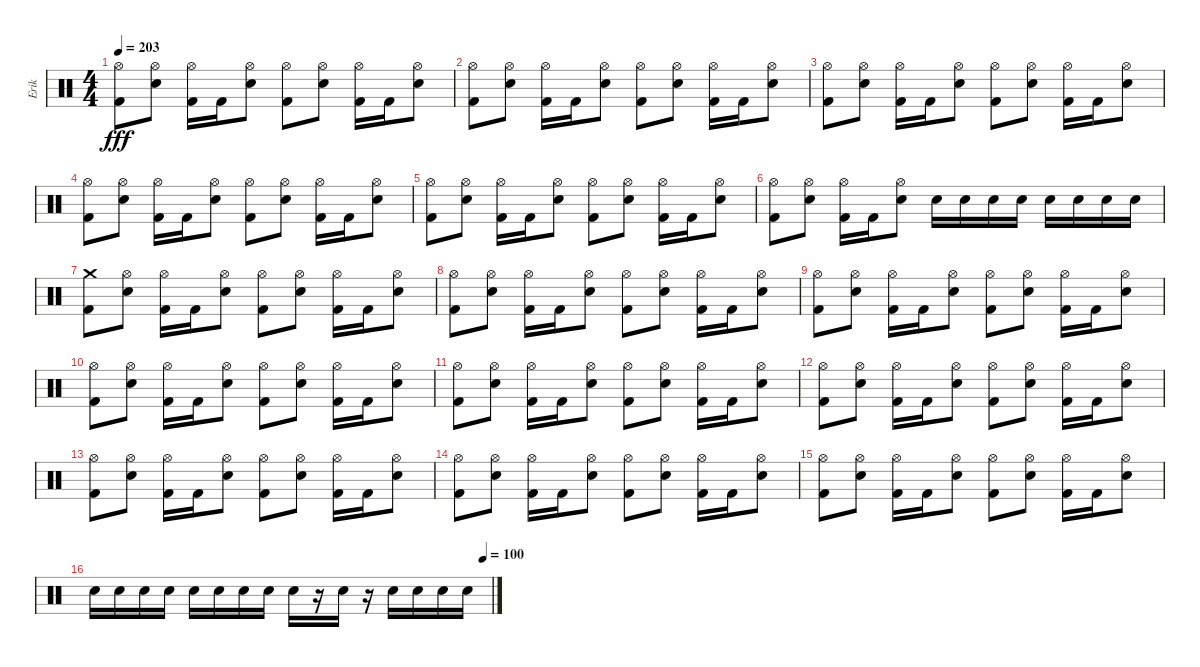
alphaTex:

\track ("Erik" "Erik") {instrument percussion}
\staff {score}
\articulation defaults
\ts (4 4)
\tempo 203
\clef neutral
\ks c
("Kick (hit) 2" "Hi-Hat (open)").8{dy fff} ("Electric Snare (hit)" "Hi-Hat (open)").8 ("Kick (hit) 2" "Hi-Hat (open)").16 "Kick (hit) 2".16 ("Electric Snare (hit)" "Hi-Hat (open)").8 ("Kick (hit) 2" "Hi-Hat (open)").8 ("Electric Snare (hit)" "Hi-Hat (open)").8 ("Kick (hit) 2" "Hi-Hat (open)").16 "Kick (hit) 2".16 ("Electric Snare (hit)" "Hi-Hat (open)").8 |
("Kick (hit) 2" "Hi-Hat (open)").8 ("Electric Snare (hit)" "Hi-Hat (open)").8 ("Kick (hit) 2" "Hi-Hat (open)").16 "Kick (hit) 2".16 ("Electric Snare (hit)" "Hi-Hat (open)").8 ("Kick (hit) 2" "Hi-Hat (open)").8 ("Electric Snare (hit)" "Hi-Hat (open)").8 ("Kick (hit) 2" "Hi-Hat (open)").16 "Kick (hit) 2".16 ("Electric Snare (hit)" "Hi-Hat (open)").8 |
("Kick (hit) 2" "Hi-Hat (open)").8 ("Electric Snare (hit)" "Hi-Hat (open)").8 ("Kick (hit) 2" "Hi-Hat (open)").16 "Kick (hit) 2".16 ("Electric Snare (hit)" "Hi-Hat (open)").8 ("Kick (hit) 2" "Hi-Hat (open)").8 ("Electric Snare (hit)" "Hi-Hat (open)").8 ("Kick (hit) 2" "Hi-Hat (open)").16 "Kick (hit) 2".16 ("Electric Snare (hit)" "Hi-Hat (open)").8 |
("Kick (hit) 2" "Hi-Hat (open)").8 ("Electric Snare (hit)" "Hi-Hat (open)").8 ("Kick (hit) 2" "Hi-Hat (open)").16 "Kick (hit) 2".16 ("Electric Snare (hit)" "Hi-Hat (open)").8 ("Kick (hit) 2" "Hi-Hat (open)").8 ("Electric Snare (hit)" "Hi-Hat (open)").8 ("Kick (hit) 2" "Hi-Hat (open)").16 "Kick (hit) 2".16 ("Electric Snare (hit)" "Hi-Hat (open)").8 |
("Kick (hit) 2" "Hi-Hat (open)").8 ("Electric Snare (hit)" "Hi-Hat (open)").8 ("Kick (hit) 2" "Hi-Hat (open)").16 "Kick (hit) 2".16 ("Electric Snare (hit)" "Hi-Hat (open)").8 ("Kick (hit) 2" "Hi-Hat (open)").8 ("Electric Snare (hit)" "Hi-Hat (open)").8 ("Kick (hit) 2" "Hi-Hat (open)").16 "Kick (hit) 2".16 ("Electric Snare (hit)" "Hi-Hat (open)").8 |
("Kick (hit) 2" "Hi-Hat (open)").8 ("Electric Snare (hit)" "Hi-Hat (open)").8 ("Kick (hit) 2" "Hi-Hat (open)").16 "Kick (hit) 2".16 ("Electric Snare (hit)" "Hi-Hat (open)").8 "Electric Snare (hit)".16 "Electric Snare (hit)".16 "Electric Snare (hit)".16 "Electric Snare (hit)".16 "Electric Snare (hit)".16 "Electric Snare (hit)".16 "Electric Snare (hit)".16 "Electric Snare (hit)".16 |
("Kick (hit) 2" "Crash medium (hit)").8 ("Electric Snare (hit)" "Hi-Hat (open)").8 ("Kick (hit) 2" "Hi-Hat (open)").16 "Kick (hit) 2".16 ("Electric Snare (hit)" "Hi-Hat (open)").8 ("Kick (hit) 2" "Hi-Hat (open)").8 ("Electric Snare (hit)" "Hi-Hat (open)").8 ("Kick (hit) 2" "Hi-Hat (open)").16 "Kick (hit) 2".16 ("Electric Snare (hit)" "Hi-Hat (open)").8 |
("Kick (hit) 2" "Hi-Hat (open)").8 ("Electric Snare (hit)" "Hi-Hat (open)").8 ("Kick (hit) 2" "Hi-Hat (open)").16 "Kick (hit) 2".16 ("Electric Snare (hit)" "Hi-Hat (open)").8 ("Kick (hit) 2" "Hi-Hat (open)").8 ("Electric Snare (hit)" "Hi-Hat (open)").8 ("Kick (hit) 2" "Hi-Hat (open)").16 "Kick (hit) 2".16 ("Electric Snare (hit)" "Hi-Hat (open)").8 |
("Kick (hit) 2" "Hi-Hat (open)").8 ("Electric Snare (hit)" "Hi-Hat (open)").8 ("Kick (hit) 2" "Hi-Hat (open)").16 "Kick (hit) 2".16 ("Electric Snare (hit)" "Hi-Hat (open)").8 ("Kick (hit) 2" "Hi-Hat (open)").8 ("Electric Snare (hit)" "Hi-Hat (open)").8 ("Kick (hit) 2" "Hi-Hat (open)").16 "Kick (hit) 2".16 ("Electric Snare (hit)" "Hi-Hat (open)").8 |
("Kick (hit) 2" "Hi-Hat (open)").8 ("Electric Snare (hit)" "Hi-Hat (open)").8 ("Kick (hit) 2" "Hi-Hat (open)").16 "Kick (hit) 2".16 ("Electric Snare (hit)" "Hi-Hat (open)").8 ("Kick (hit) 2" "Hi-Hat (open)").8 ("Electric Snare (hit)" "Hi-Hat (open)").8 ("Kick (hit) 2" "Hi-Hat (open)").16 "Kick (hit) 2".16 ("Electric Snare (hit)" "Hi-Hat (open)").8 |
("Kick (hit) 2" "Hi-Hat (open)").8 ("Electric Snare (hit)" "Hi-Hat (open)").8 ("Kick (hit) 2" "Hi-Hat (open)").16 "Kick (hit) 2".16 ("Electric Snare (hit)" "Hi-Hat (open)").8 ("Kick (hit) 2" "Hi-Hat (open)").8 ("Electric Snare (hit)" "Hi-Hat (open)").8 ("Kick (hit) 2" "Hi-Hat (open)").16 "Kick (hit) 2".16 ("Electric Snare (hit)" "Hi-Hat (open)").8 |
("Kick (hit) 2" "Hi-Hat (open)").8 ("Electric Snare (hit)" "Hi-Hat (open)").8 ("Kick (hit) 2" "Hi-Hat (open)").16 "Kick (hit) 2".16 ("Electric Snare (hit)" "Hi-Hat (open)").8 ("Kick (hit) 2" "Hi-Hat (open)").8 ("Electric Snare (hit)" "Hi-Hat (open)").8 ("Kick (hit) 2" "Hi-Hat (open)").16 "Kick (hit) 2".16 ("Electric Snare (hit)" "Hi-Hat (open)").8 |
("Kick (hit) 2" "Hi-Hat (open)").8 ("Electric Snare (hit)" "Hi-Hat (open)").8 ("Kick (hit) 2" "Hi-Hat (open)").16 "Kick (hit) 2".16 ("Electric Snare (hit)" "Hi-Hat (open)").8 ("Kick (hit) 2" "Hi-Hat (open)").8 ("Electric Snare (hit)" "Hi-Hat (open)").8 ("Kick (hit) 2" "Hi-Hat (open)").16 "Kick (hit) 2".16 ("Electric Snare (hit)" "Hi-Hat (open)").8 |
("Kick (hit) 2" "Hi-Hat (open)").8 ("Electric Snare (hit)" "Hi-Hat (open)").8 ("Kick (hit) 2" "Hi-Hat (open)").16 "Kick (hit) 2".16 ("Electric Snare (hit)" "Hi-Hat (open)").8 ("Kick (hit) 2" "Hi-Hat (open)").8 ("Electric Snare (hit)" "Hi-Hat (open)").8 ("Kick (hit) 2" "Hi-Hat (open)").16 "Kick (hit) 2".16 ("Electric Snare (hit)" "Hi-Hat (open)").8 |
("Kick (hit) 2" "Hi-Hat (open)").8 ("Electric Snare (hit)" "Hi-Hat (open)").8 ("Kick (hit) 2" "Hi-Hat (open)").16 "Kick (hit) 2".16 ("Electric Snare (hit)" "Hi-Hat (open)").8 ("Kick (hit) 2" "Hi-Hat (open)").8 ("Electric Snare (hit)" "Hi-Hat (open)").8 ("Kick (hit) 2" "Hi-Hat (open)").16 "Kick (hit) 2".16 ("Electric Snare (hit)" "Hi-Hat (open)").8 |
\tempo (100 0.9791666666666666)
"Electric Snare (hit)".16 "Electric Snare (hit)".16 "Electric Snare (hit)".16 "Electric Snare (hit)".16 "Electric Snare (hit)".16 "Electric Snare (hit)".16 "Electric Snare (hit)".16 "Electric Snare (hit)".16 "Electric Snare (hit)".16 r.16 "Electric Snare (hit)".16 r.16 "Electric Snare (hit)".16 "Electric Snare (hit)".16 "Electric Snare (hit)".16 "Electric Snare (hit)".16
